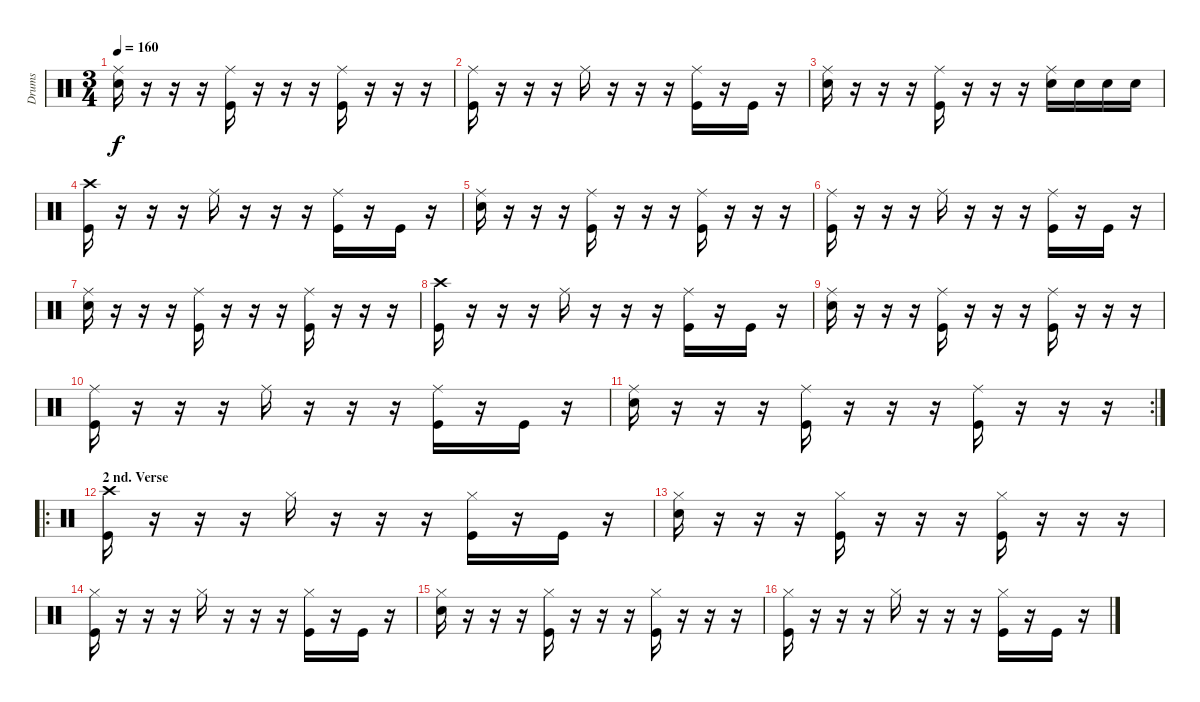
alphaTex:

\track ("Drums" "Drums") {instrument percussion}
\staff {score}
\articulation defaults
\ts (3 4)
\tempo 160
\clef neutral
\ks c
("Ride (middle)" "Snare (hit) 2").16{dy f} r.16 r.16 r.16 ("Ride (middle)" "Kick (hit)").16 r.16 r.16 r.16 ("Ride (middle)" "Kick (hit)").16 r.16 r.16 r.16 |
("Ride (middle)" "Kick (hit)").16 r.16 r.16 r.16 "Ride (middle)".16 r.16 r.16 r.16 ("Ride (middle)" "Kick (hit)").16 r.16 "Kick (hit)".16 r.16 |
("Ride (middle)" "Snare (hit) 2").16 r.16 r.16 r.16 ("Ride (middle)" "Kick (hit)").16 r.16 r.16 r.16 ("Ride (middle)" "Snare (hit) 2").16 "Snare (hit) 2".16 "Snare (hit) 2".16 "Snare (hit) 2".16 |
("Crash high (hit)" "Kick (hit)").16 r.16 r.16 r.16 "Ride (middle)".16 r.16 r.16 r.16 ("Ride (middle)" "Kick (hit)").16 r.16 "Kick (hit)".16 r.16 |
("Ride (middle)" "Snare (hit) 2").16 r.16 r.16 r.16 ("Ride (middle)" "Kick (hit)").16 r.16 r.16 r.16 ("Ride (middle)" "Kick (hit)").16 r.16 r.16 r.16 |
("Ride (middle)" "Kick (hit)").16 r.16 r.16 r.16 "Ride (middle)".16 r.16 r.16 r.16 ("Ride (middle)" "Kick (hit)").16 r.16 "Kick (hit)".16 r.16 |
("Ride (middle)" "Snare (hit) 2").16 r.16 r.16 r.16 ("Ride (middle)" "Kick (hit)").16 r.16 r.16 r.16 ("Ride (middle)" "Kick (hit)").16 r.16 r.16 r.16 |
("Crash high (hit)" "Kick (hit)").16 r.16 r.16 r.16 "Ride (middle)".16 r.16 r.16 r.16 ("Ride (middle)" "Kick (hit)").16 r.16 "Kick (hit)".16 r.16 |
("Ride (middle)" "Snare (hit) 2").16 r.16 r.16 r.16 ("Ride (middle)" "Kick (hit)").16 r.16 r.16 r.16 ("Ride (middle)" "Kick (hit)").16 r.16 r.16 r.16 |
("Ride (middle)" "Kick (hit)").16 r.16 r.16 r.16 "Ride (middle)".16 r.16 r.16 r.16 ("Ride (middle)" "Kick (hit)").16 r.16 "Kick (hit)".16 r.16 |
\rc 2
("Ride (middle)" "Snare (hit) 2").16 r.16 r.16 r.16 ("Ride (middle)" "Kick (hit)").16 r.16 r.16 r.16 ("Ride (middle)" "Kick (hit)").16 r.16 r.16 r.16 |
\ro
\section ("" "2 nd. Verse")
("Crash high (hit)" "Kick (hit)").16 r.16 r.16 r.16 "Hi-Hat (closed)".16 r.16 r.16 r.16 ("Hi-Hat (closed)" "Kick (hit)").16 r.16 "Kick (hit)".16 r.16 |
("Hi-Hat (closed)" "Snare (hit) 2").16 r.16 r.16 r.16 ("Hi-Hat (closed)" "Kick (hit)").16 r.16 r.16 r.16 ("Hi-Hat (closed)" "Kick (hit)").16 r.16 r.16 r.16 |
("Hi-Hat (closed)" "Kick (hit)").16 r.16 r.16 r.16 "Hi-Hat (closed)".16 r.16 r.16 r.16 ("Hi-Hat (closed)" "Kick (hit)").16 r.16 "Kick (hit)".16 r.16 |
("Hi-Hat (closed)" "Snare (hit) 2").16 r.16 r.16 r.16 ("Hi-Hat (closed)" "Kick (hit)").16 r.16 r.16 r.16 ("Hi-Hat (closed)" "Kick (hit)").16 r.16 r.16 r.16 |
("Hi-Hat (closed)" "Kick (hit)").16 r.16 r.16 r.16 "Hi-Hat (closed)".16 r.16 r.16 r.16 ("Hi-Hat (closed)" "Kick (hit)").16 r.16 "Kick (hit)".16 r.16
